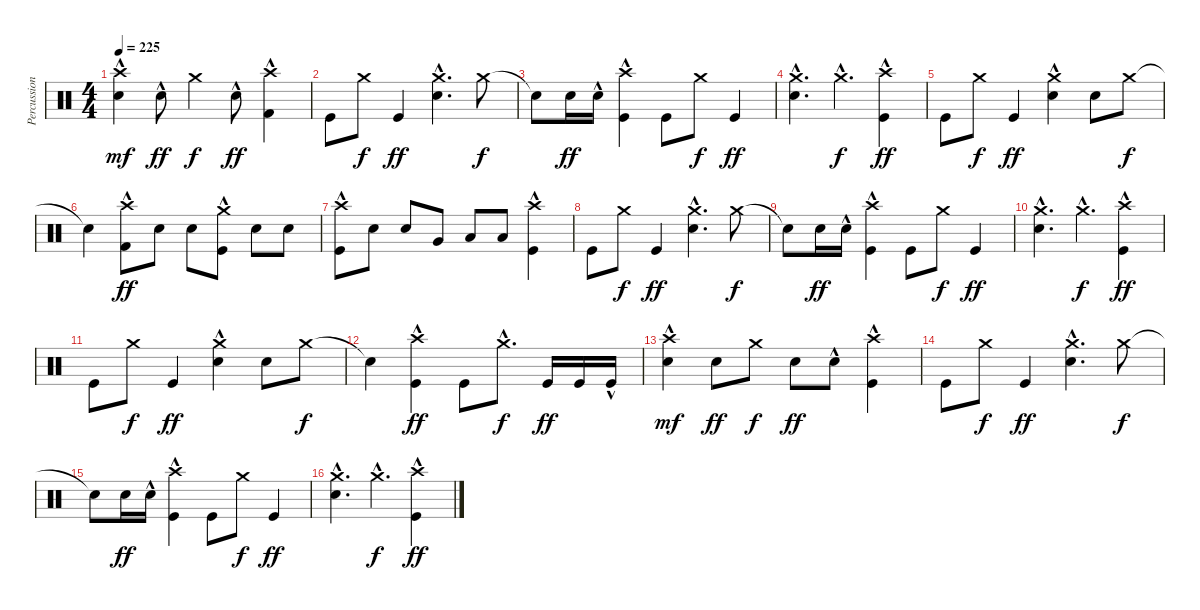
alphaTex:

\track ("Percussions" "Percussion") {instrument percussion}
\staff {score}
\articulation defaults
\ts (4 4)
\tempo 225
\clef neutral
\ks c
("Electric Snare (hit)" "Crash high (hit)"{hac}).4{dy mf} "Electric Snare (hit)"{hac}.8{dy ff} "Crash medium (hit)".4{dy f} "Electric Snare (hit)"{hac}.8{dy ff} ("Kick (hit) 2" "Crash high (hit)"{hac}).4 |
"Kick (hit)".8 "Crash medium (hit)".8{dy f} "Kick (hit)".4{dy ff} ("Electric Snare (hit)" "Crash medium (hit)"{hac}).4{d} "Crash medium (hit)".8{dy f} |
"Snare (hit)"{t}.8 "Electric Snare (hit)".16{dy ff} "Electric Snare (hit)"{hac}.16 ("Kick (hit)" "Crash high (hit)"{hac}).4 "Kick (hit)".8 "Crash medium (hit)".8{dy f} "Kick (hit)".4{dy ff} |
("Electric Snare (hit)" "Crash medium (hit)"{hac}).4{d} "Crash medium (hit)"{hac}.4{d dy f} ("Kick (hit)" "Crash high (hit)"{hac}).4{dy ff} |
"Kick (hit)".8 "Crash medium (hit)".8{dy f} "Kick (hit)".4{dy ff} ("Electric Snare (hit)" "Crash medium (hit)"{hac}).4 "Electric Snare (hit)".8 "Crash medium (hit)".8{dy f} |
"Snare (hit)"{t}.4 ("Kick (hit) 2"{hac} "Crash high (hit)"{hac}).8{dy ff} "Electric Snare (hit)".8 "Electric Snare (hit)".8 ("Kick (hit)"{hac} "Crash medium (hit)"{hac}).8 "Electric Snare (hit)".8 "Electric Snare (hit)".8 |
("Kick (hit)"{hac} "Crash high (hit)"{hac}).8 "Electric Snare (hit)".8 "Electric Snare (hit)".8 "Very Low Tom (hit)".8 "Low Floor Tom (hit)".8 "Low Floor Tom (hit)".8 ("Kick (hit)" "Crash high (hit)"{hac}).4 |
"Kick (hit)".8 "Crash medium (hit)".8{dy f} "Kick (hit)".4{dy ff} ("Electric Snare (hit)" "Crash medium (hit)"{hac}).4{d} "Crash medium (hit)".8{dy f} |
"Snare (hit)"{t}.8 "Electric Snare (hit)".16{dy ff} "Electric Snare (hit)"{hac}.16 ("Kick (hit)" "Crash high (hit)"{hac}).4 "Kick (hit)".8 "Crash medium (hit)".8{dy f} "Kick (hit)".4{dy ff} |
("Electric Snare (hit)" "Crash medium (hit)"{hac}).4{d} "Crash medium (hit)"{hac}.4{d dy f} ("Kick (hit)" "Crash high (hit)"{hac}).4{dy ff} |
"Kick (hit)".8 "Crash medium (hit)".8{dy f} "Kick (hit)".4{dy ff} ("Electric Snare (hit)" "Crash medium (hit)"{hac}).4 "Electric Snare (hit)".8 "Crash medium (hit)".8{dy f} |
"Snare (hit)"{t}.4 ("Kick (hit)" "Crash high (hit)"{hac}).4{dy ff} "Kick (hit)".8 "Crash medium (hit)"{hac}.8{d dy f} "Kick (hit)".16{dy ff} "Kick (hit)".16 "Kick (hit)"{hac}.16 |
("Electric Snare (hit)" "Crash high (hit)"{hac}).4{dy mf} "Electric Snare (hit)".8{dy ff} "Crash medium (hit)".8{dy f} "Electric Snare (hit)".8{dy ff} "Electric Snare (hit)"{hac}.8 ("Kick (hit)" "Crash high (hit)"{hac}).4 |
"Kick (hit)".8 "Crash medium (hit)".8{dy f} "Kick (hit)".4{dy ff} ("Electric Snare (hit)" "Crash medium (hit)"{hac}).4{d} "Crash medium (hit)".8{dy f} |
"Snare (hit)"{t}.8 "Electric Snare (hit)".16{dy ff} "Electric Snare (hit)"{hac}.16 ("Kick (hit)" "Crash high (hit)"{hac}).4 "Kick (hit)".8 "Crash medium (hit)".8{dy f} "Kick (hit)".4{dy ff} |
("Electric Snare (hit)" "Crash medium (hit)"{hac}).4{d} "Crash medium (hit)"{hac}.4{d dy f} ("Kick (hit)" "Crash high (hit)"{hac}).4{dy ff}
